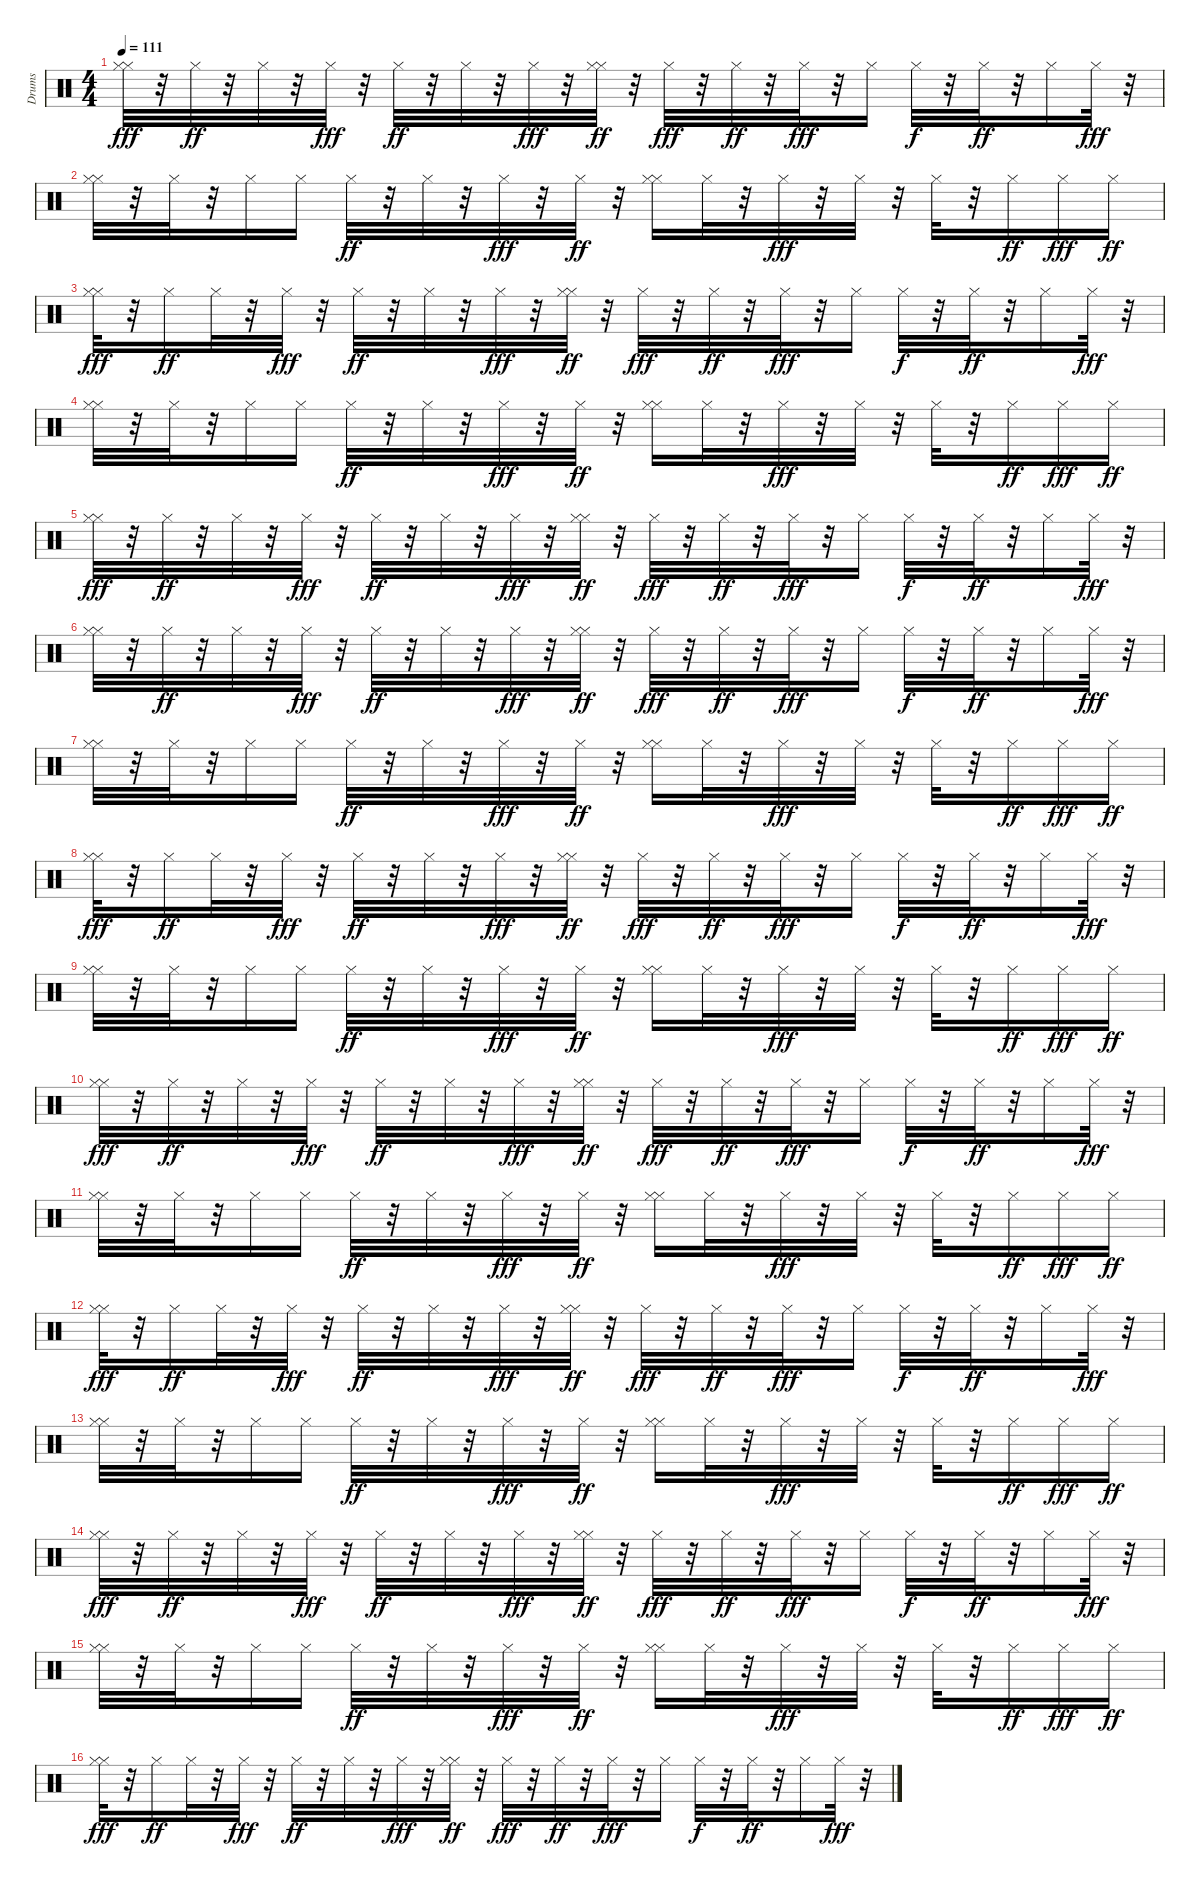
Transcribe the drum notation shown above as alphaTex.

\track ("Drums" "Drums") {instrument percussion}
\staff {score}
\articulation defaults
\ts (4 4)
\tempo 111
\clef neutral
\ks c
("Hi-Hat (closed)" "Hi-Hat (closed)").32{dy fff} r.32 "Hi-Hat (closed)".32{dy ff} r.32 "Hi-Hat (closed)".32 r.32 "Hi-Hat (closed)".32{dy fff} r.32 "Hi-Hat (closed)".32{dy ff} r.32 "Hi-Hat (closed)".32 r.32 "Hi-Hat (closed)".32{dy fff} r.32 ("Hi-Hat (closed)" "Hi-Hat (closed)").32{dy ff} r.32 "Hi-Hat (closed)".32{dy fff} r.32 "Hi-Hat (closed)".32{dy ff} r.32 "Hi-Hat (closed)".32{dy fff} r.32 "Hi-Hat (closed)".16 "Hi-Hat (closed)".32{dy f} r.32 "Hi-Hat (closed)".32{dy ff} r.32 "Hi-Hat (closed)".16 "Hi-Hat (closed)".32{dy fff} r.32 |
("Hi-Hat (closed)" "Hi-Hat (closed)").32 r.32 "Hi-Hat (closed)".32 r.32 "Hi-Hat (closed)".16 "Hi-Hat (closed)".16 "Hi-Hat (closed)".32{dy ff} r.32 "Hi-Hat (closed)".32 r.32 "Hi-Hat (closed)".32{dy fff} r.32 "Hi-Hat (closed)".32{dy ff} r.32 ("Hi-Hat (closed)" "Hi-Hat (closed)").16 "Hi-Hat (closed)".32 r.32 "Hi-Hat (closed)".32{dy fff} r.32 "Hi-Hat (closed)".32 r.32 "Hi-Hat (closed)".32 r.32 "Hi-Hat (closed)".16{dy ff} "Hi-Hat (closed)".16{dy fff} "Hi-Hat (closed)".16{dy ff} |
("Hi-Hat (closed)" "Hi-Hat (closed)").32{dy fff} r.32 "Hi-Hat (closed)".16{dy ff} "Hi-Hat (closed)".32 r.32 "Hi-Hat (closed)".32{dy fff} r.32 "Hi-Hat (closed)".32{dy ff} r.32 "Hi-Hat (closed)".32 r.32 "Hi-Hat (closed)".32{dy fff} r.32 ("Hi-Hat (closed)" "Hi-Hat (closed)").32{dy ff} r.32 "Hi-Hat (closed)".32{dy fff} r.32 "Hi-Hat (closed)".32{dy ff} r.32 "Hi-Hat (closed)".32{dy fff} r.32 "Hi-Hat (closed)".16 "Hi-Hat (closed)".32{dy f} r.32 "Hi-Hat (closed)".32{dy ff} r.32 "Hi-Hat (closed)".16 "Hi-Hat (closed)".32{dy fff} r.32 |
("Hi-Hat (closed)" "Hi-Hat (closed)").32 r.32 "Hi-Hat (closed)".32 r.32 "Hi-Hat (closed)".16 "Hi-Hat (closed)".16 "Hi-Hat (closed)".32{dy ff} r.32 "Hi-Hat (closed)".32 r.32 "Hi-Hat (closed)".32{dy fff} r.32 "Hi-Hat (closed)".32{dy ff} r.32 ("Hi-Hat (closed)" "Hi-Hat (closed)").16 "Hi-Hat (closed)".32 r.32 "Hi-Hat (closed)".32{dy fff} r.32 "Hi-Hat (closed)".32 r.32 "Hi-Hat (closed)".32 r.32 "Hi-Hat (closed)".16{dy ff} "Hi-Hat (closed)".16{dy fff} "Hi-Hat (closed)".16{dy ff} |
("Hi-Hat (closed)" "Hi-Hat (closed)").32{dy fff} r.32 "Hi-Hat (closed)".32{dy ff} r.32 "Hi-Hat (closed)".32 r.32 "Hi-Hat (closed)".32{dy fff} r.32 "Hi-Hat (closed)".32{dy ff} r.32 "Hi-Hat (closed)".32 r.32 "Hi-Hat (closed)".32{dy fff} r.32 ("Hi-Hat (closed)" "Hi-Hat (closed)").32{dy ff} r.32 "Hi-Hat (closed)".32{dy fff} r.32 "Hi-Hat (closed)".32{dy ff} r.32 "Hi-Hat (closed)".32{dy fff} r.32 "Hi-Hat (closed)".16 "Hi-Hat (closed)".32{dy f} r.32 "Hi-Hat (closed)".32{dy ff} r.32 "Hi-Hat (closed)".16 "Hi-Hat (closed)".32{dy fff} r.32 |
("Hi-Hat (closed)" "Hi-Hat (closed)").32 r.32 "Hi-Hat (closed)".32{dy ff} r.32 "Hi-Hat (closed)".32 r.32 "Hi-Hat (closed)".32{dy fff} r.32 "Hi-Hat (closed)".32{dy ff} r.32 "Hi-Hat (closed)".32 r.32 "Hi-Hat (closed)".32{dy fff} r.32 ("Hi-Hat (closed)" "Hi-Hat (closed)").32{dy ff} r.32 "Hi-Hat (closed)".32{dy fff} r.32 "Hi-Hat (closed)".32{dy ff} r.32 "Hi-Hat (closed)".32{dy fff} r.32 "Hi-Hat (closed)".16 "Hi-Hat (closed)".32{dy f} r.32 "Hi-Hat (closed)".32{dy ff} r.32 "Hi-Hat (closed)".16 "Hi-Hat (closed)".32{dy fff} r.32 |
("Hi-Hat (closed)" "Hi-Hat (closed)").32 r.32 "Hi-Hat (closed)".32 r.32 "Hi-Hat (closed)".16 "Hi-Hat (closed)".16 "Hi-Hat (closed)".32{dy ff} r.32 "Hi-Hat (closed)".32 r.32 "Hi-Hat (closed)".32{dy fff} r.32 "Hi-Hat (closed)".32{dy ff} r.32 ("Hi-Hat (closed)" "Hi-Hat (closed)").16 "Hi-Hat (closed)".32 r.32 "Hi-Hat (closed)".32{dy fff} r.32 "Hi-Hat (closed)".32 r.32 "Hi-Hat (closed)".32 r.32 "Hi-Hat (closed)".16{dy ff} "Hi-Hat (closed)".16{dy fff} "Hi-Hat (closed)".16{dy ff} |
("Hi-Hat (closed)" "Hi-Hat (closed)").32{dy fff} r.32 "Hi-Hat (closed)".16{dy ff} "Hi-Hat (closed)".32 r.32 "Hi-Hat (closed)".32{dy fff} r.32 "Hi-Hat (closed)".32{dy ff} r.32 "Hi-Hat (closed)".32 r.32 "Hi-Hat (closed)".32{dy fff} r.32 ("Hi-Hat (closed)" "Hi-Hat (closed)").32{dy ff} r.32 "Hi-Hat (closed)".32{dy fff} r.32 "Hi-Hat (closed)".32{dy ff} r.32 "Hi-Hat (closed)".32{dy fff} r.32 "Hi-Hat (closed)".16 "Hi-Hat (closed)".32{dy f} r.32 "Hi-Hat (closed)".32{dy ff} r.32 "Hi-Hat (closed)".16 "Hi-Hat (closed)".32{dy fff} r.32 |
("Hi-Hat (closed)" "Hi-Hat (closed)").32 r.32 "Hi-Hat (closed)".32 r.32 "Hi-Hat (closed)".16 "Hi-Hat (closed)".16 "Hi-Hat (closed)".32{dy ff} r.32 "Hi-Hat (closed)".32 r.32 "Hi-Hat (closed)".32{dy fff} r.32 "Hi-Hat (closed)".32{dy ff} r.32 ("Hi-Hat (closed)" "Hi-Hat (closed)").16 "Hi-Hat (closed)".32 r.32 "Hi-Hat (closed)".32{dy fff} r.32 "Hi-Hat (closed)".32 r.32 "Hi-Hat (closed)".32 r.32 "Hi-Hat (closed)".16{dy ff} "Hi-Hat (closed)".16{dy fff} "Hi-Hat (closed)".16{dy ff} |
("Hi-Hat (closed)" "Hi-Hat (closed)").32{dy fff} r.32 "Hi-Hat (closed)".32{dy ff} r.32 "Hi-Hat (closed)".32 r.32 "Hi-Hat (closed)".32{dy fff} r.32 "Hi-Hat (closed)".32{dy ff} r.32 "Hi-Hat (closed)".32 r.32 "Hi-Hat (closed)".32{dy fff} r.32 ("Hi-Hat (closed)" "Hi-Hat (closed)").32{dy ff} r.32 "Hi-Hat (closed)".32{dy fff} r.32 "Hi-Hat (closed)".32{dy ff} r.32 "Hi-Hat (closed)".32{dy fff} r.32 "Hi-Hat (closed)".16 "Hi-Hat (closed)".32{dy f} r.32 "Hi-Hat (closed)".32{dy ff} r.32 "Hi-Hat (closed)".16 "Hi-Hat (closed)".32{dy fff} r.32 |
("Hi-Hat (closed)" "Hi-Hat (closed)").32 r.32 "Hi-Hat (closed)".32 r.32 "Hi-Hat (closed)".16 "Hi-Hat (closed)".16 "Hi-Hat (closed)".32{dy ff} r.32 "Hi-Hat (closed)".32 r.32 "Hi-Hat (closed)".32{dy fff} r.32 "Hi-Hat (closed)".32{dy ff} r.32 ("Hi-Hat (closed)" "Hi-Hat (closed)").16 "Hi-Hat (closed)".32 r.32 "Hi-Hat (closed)".32{dy fff} r.32 "Hi-Hat (closed)".32 r.32 "Hi-Hat (closed)".32 r.32 "Hi-Hat (closed)".16{dy ff} "Hi-Hat (closed)".16{dy fff} "Hi-Hat (closed)".16{dy ff} |
("Hi-Hat (closed)" "Hi-Hat (closed)").32{dy fff} r.32 "Hi-Hat (closed)".16{dy ff} "Hi-Hat (closed)".32 r.32 "Hi-Hat (closed)".32{dy fff} r.32 "Hi-Hat (closed)".32{dy ff} r.32 "Hi-Hat (closed)".32 r.32 "Hi-Hat (closed)".32{dy fff} r.32 ("Hi-Hat (closed)" "Hi-Hat (closed)").32{dy ff} r.32 "Hi-Hat (closed)".32{dy fff} r.32 "Hi-Hat (closed)".32{dy ff} r.32 "Hi-Hat (closed)".32{dy fff} r.32 "Hi-Hat (closed)".16 "Hi-Hat (closed)".32{dy f} r.32 "Hi-Hat (closed)".32{dy ff} r.32 "Hi-Hat (closed)".16 "Hi-Hat (closed)".32{dy fff} r.32 |
("Hi-Hat (closed)" "Hi-Hat (closed)").32 r.32 "Hi-Hat (closed)".32 r.32 "Hi-Hat (closed)".16 "Hi-Hat (closed)".16 "Hi-Hat (closed)".32{dy ff} r.32 "Hi-Hat (closed)".32 r.32 "Hi-Hat (closed)".32{dy fff} r.32 "Hi-Hat (closed)".32{dy ff} r.32 ("Hi-Hat (closed)" "Hi-Hat (closed)").16 "Hi-Hat (closed)".32 r.32 "Hi-Hat (closed)".32{dy fff} r.32 "Hi-Hat (closed)".32 r.32 "Hi-Hat (closed)".32 r.32 "Hi-Hat (closed)".16{dy ff} "Hi-Hat (closed)".16{dy fff} "Hi-Hat (closed)".16{dy ff} |
("Hi-Hat (closed)" "Hi-Hat (closed)").32{dy fff} r.32 "Hi-Hat (closed)".32{dy ff} r.32 "Hi-Hat (closed)".32 r.32 "Hi-Hat (closed)".32{dy fff} r.32 "Hi-Hat (closed)".32{dy ff} r.32 "Hi-Hat (closed)".32 r.32 "Hi-Hat (closed)".32{dy fff} r.32 ("Hi-Hat (closed)" "Hi-Hat (closed)").32{dy ff} r.32 "Hi-Hat (closed)".32{dy fff} r.32 "Hi-Hat (closed)".32{dy ff} r.32 "Hi-Hat (closed)".32{dy fff} r.32 "Hi-Hat (closed)".16 "Hi-Hat (closed)".32{dy f} r.32 "Hi-Hat (closed)".32{dy ff} r.32 "Hi-Hat (closed)".16 "Hi-Hat (closed)".32{dy fff} r.32 |
("Hi-Hat (closed)" "Hi-Hat (closed)").32 r.32 "Hi-Hat (closed)".32 r.32 "Hi-Hat (closed)".16 "Hi-Hat (closed)".16 "Hi-Hat (closed)".32{dy ff} r.32 "Hi-Hat (closed)".32 r.32 "Hi-Hat (closed)".32{dy fff} r.32 "Hi-Hat (closed)".32{dy ff} r.32 ("Hi-Hat (closed)" "Hi-Hat (closed)").16 "Hi-Hat (closed)".32 r.32 "Hi-Hat (closed)".32{dy fff} r.32 "Hi-Hat (closed)".32 r.32 "Hi-Hat (closed)".32 r.32 "Hi-Hat (closed)".16{dy ff} "Hi-Hat (closed)".16{dy fff} "Hi-Hat (closed)".16{dy ff} |
("Hi-Hat (closed)" "Hi-Hat (closed)").32{dy fff} r.32 "Hi-Hat (closed)".16{dy ff} "Hi-Hat (closed)".32 r.32 "Hi-Hat (closed)".32{dy fff} r.32 "Hi-Hat (closed)".32{dy ff} r.32 "Hi-Hat (closed)".32 r.32 "Hi-Hat (closed)".32{dy fff} r.32 ("Hi-Hat (closed)" "Hi-Hat (closed)").32{dy ff} r.32 "Hi-Hat (closed)".32{dy fff} r.32 "Hi-Hat (closed)".32{dy ff} r.32 "Hi-Hat (closed)".32{dy fff} r.32 "Hi-Hat (closed)".16 "Hi-Hat (closed)".32{dy f} r.32 "Hi-Hat (closed)".32{dy ff} r.32 "Hi-Hat (closed)".16 "Hi-Hat (closed)".32{dy fff} r.32
